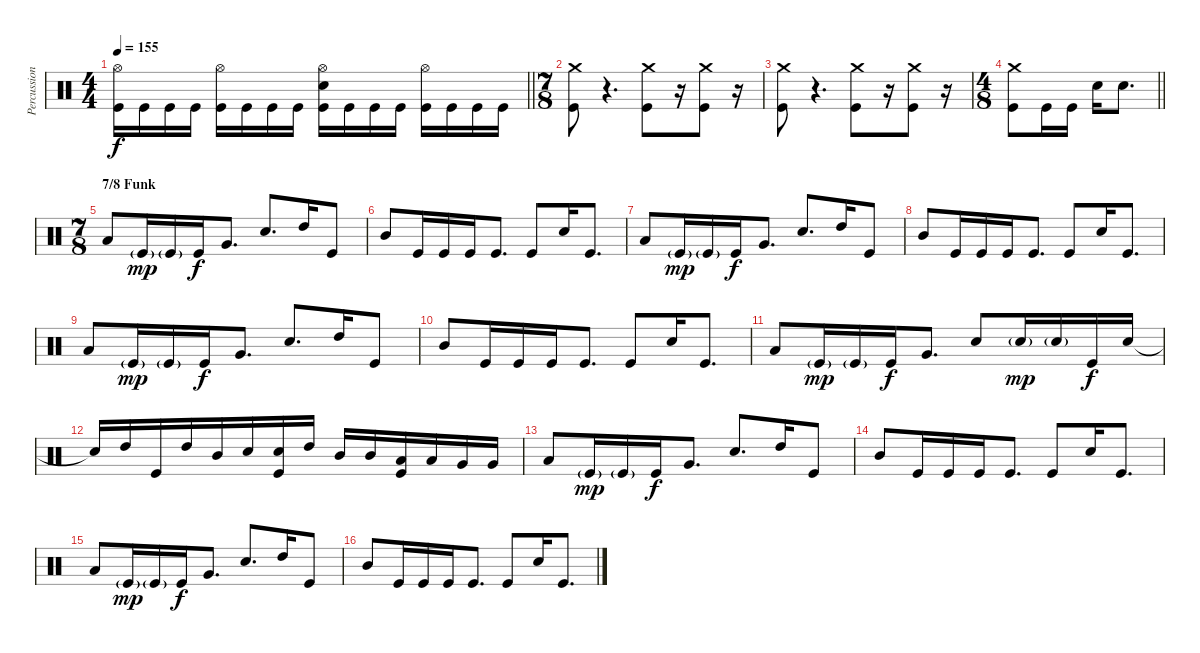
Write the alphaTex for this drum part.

\track ("Percussion" "Percussion") {instrument percussion}
\staff {score}
\articulation defaults
\ts (4 4)
\tempo 155
\clef neutral
\barLineRight lightlight
\ks c
("Hi-Hat (open)" "Kick (hit)").16{dy f} "Kick (hit)".16 "Kick (hit)".16 "Kick (hit)".16 ("Hi-Hat (open)" "Kick (hit)").16 "Kick (hit)".16 "Kick (hit)".16 "Kick (hit)".16 ("Hi-Hat (open)" "Electric Snare (hit)" "Kick (hit)").16 "Kick (hit)".16 "Kick (hit)".16 "Kick (hit)".16 ("Hi-Hat (open)" "Kick (hit)").16 "Kick (hit)".16 "Kick (hit)".16 "Kick (hit)".16 |
\ts (7 8)
\section ("" "")
("Crash medium (hit)" "Kick (hit)").8 r.4{d volume 0} ("Crash medium (hit)" "Kick (hit)").8{volume 13} r.16{volume 0} ("Crash medium (hit)" "Kick (hit)").8{volume 13} r.16{volume 0} |
("Crash medium (hit)" "Kick (hit)").8{volume 13} r.4{d volume 0} ("Crash medium (hit)" "Kick (hit)").8{volume 13} r.16{volume 0} ("Crash medium (hit)" "Kick (hit)").8{volume 13} r.16{volume 0} |
\ts (4 8)
\barLineRight lightlight
("Crash medium (hit)" "Kick (hit)").8{volume 13} "Kick (hit)".16 "Kick (hit)".16 "Electric Snare (hit)".16 "Electric Snare (hit)".8{d} |
\ts (7 8)
\section ("" "7/8 Funk")
"Low Floor Tom (hit)".8 "Kick (hit)"{g}.16{dy mp} "Kick (hit)"{g}.16 "Kick (hit)".16{dy f} "Very Low Tom (hit)".8{d} "Electric Snare (hit)".8{d} "High Tom (hit)".16 "Kick (hit)".8 |
"Mid Tom (hit)".8 "Kick (hit)".16 "Kick (hit)".16 "Kick (hit)".16 "Kick (hit)".8{d} "Kick (hit)".8 "Electric Snare (hit)".16 "Kick (hit)".8{d} |
"Low Floor Tom (hit)".8 "Kick (hit)"{g}.16{dy mp} "Kick (hit)"{g}.16 "Kick (hit)".16{dy f} "Very Low Tom (hit)".8{d} "Electric Snare (hit)".8{d} "High Tom (hit)".16 "Kick (hit)".8 |
"Mid Tom (hit)".8 "Kick (hit)".16 "Kick (hit)".16 "Kick (hit)".16 "Kick (hit)".8{d} "Kick (hit)".8 "Electric Snare (hit)".16 "Kick (hit)".8{d} |
"Low Floor Tom (hit)".8 "Kick (hit)"{g}.16{dy mp} "Kick (hit)"{g}.16 "Kick (hit)".16{dy f} "Very Low Tom (hit)".8{d} "Electric Snare (hit)".8{d} "High Tom (hit)".16 "Kick (hit)".8 |
"Mid Tom (hit)".8 "Kick (hit)".16 "Kick (hit)".16 "Kick (hit)".16 "Kick (hit)".8{d} "Kick (hit)".8 "Electric Snare (hit)".16 "Kick (hit)".8{d} |
"Low Floor Tom (hit)".8 "Kick (hit)"{g}.16{dy mp} "Kick (hit)"{g}.16 "Kick (hit)".16{dy f} "Very Low Tom (hit)".8{d} "Electric Snare (hit)".8 "Electric Snare (hit)"{g}.16{dy mp} "Electric Snare (hit)"{g}.16 "Kick (hit)".16{dy f} "Electric Snare (hit)".16 |
"Snare (hit)"{t}.16 "High Tom (hit)".16 "Kick (hit)".16 "High Tom (hit)".16 "Mid Tom (hit)".16 "Electric Snare (hit)".16 ("Electric Snare (hit)" "Kick (hit)").16 "High Tom (hit)".16 "Mid Tom (hit)".16 "Mid Tom (hit)".16 ("Low Tom (hit)" "Kick (hit)").16 "Low Tom (hit)".16 "Very Low Tom (hit)".16 "Very Low Tom (hit)".16 |
"Low Floor Tom (hit)".8 "Kick (hit)"{g}.16{dy mp} "Kick (hit)"{g}.16 "Kick (hit)".16{dy f} "Very Low Tom (hit)".8{d} "Electric Snare (hit)".8{d} "High Tom (hit)".16 "Kick (hit)".8 |
"Mid Tom (hit)".8 "Kick (hit)".16 "Kick (hit)".16 "Kick (hit)".16 "Kick (hit)".8{d} "Kick (hit)".8 "Electric Snare (hit)".16 "Kick (hit)".8{d} |
"Low Floor Tom (hit)".8 "Kick (hit)"{g}.16{dy mp} "Kick (hit)"{g}.16 "Kick (hit)".16{dy f} "Very Low Tom (hit)".8{d} "Electric Snare (hit)".8{d} "High Tom (hit)".16 "Kick (hit)".8 |
"Mid Tom (hit)".8 "Kick (hit)".16 "Kick (hit)".16 "Kick (hit)".16 "Kick (hit)".8{d} "Kick (hit)".8 "Electric Snare (hit)".16 "Kick (hit)".8{d}
